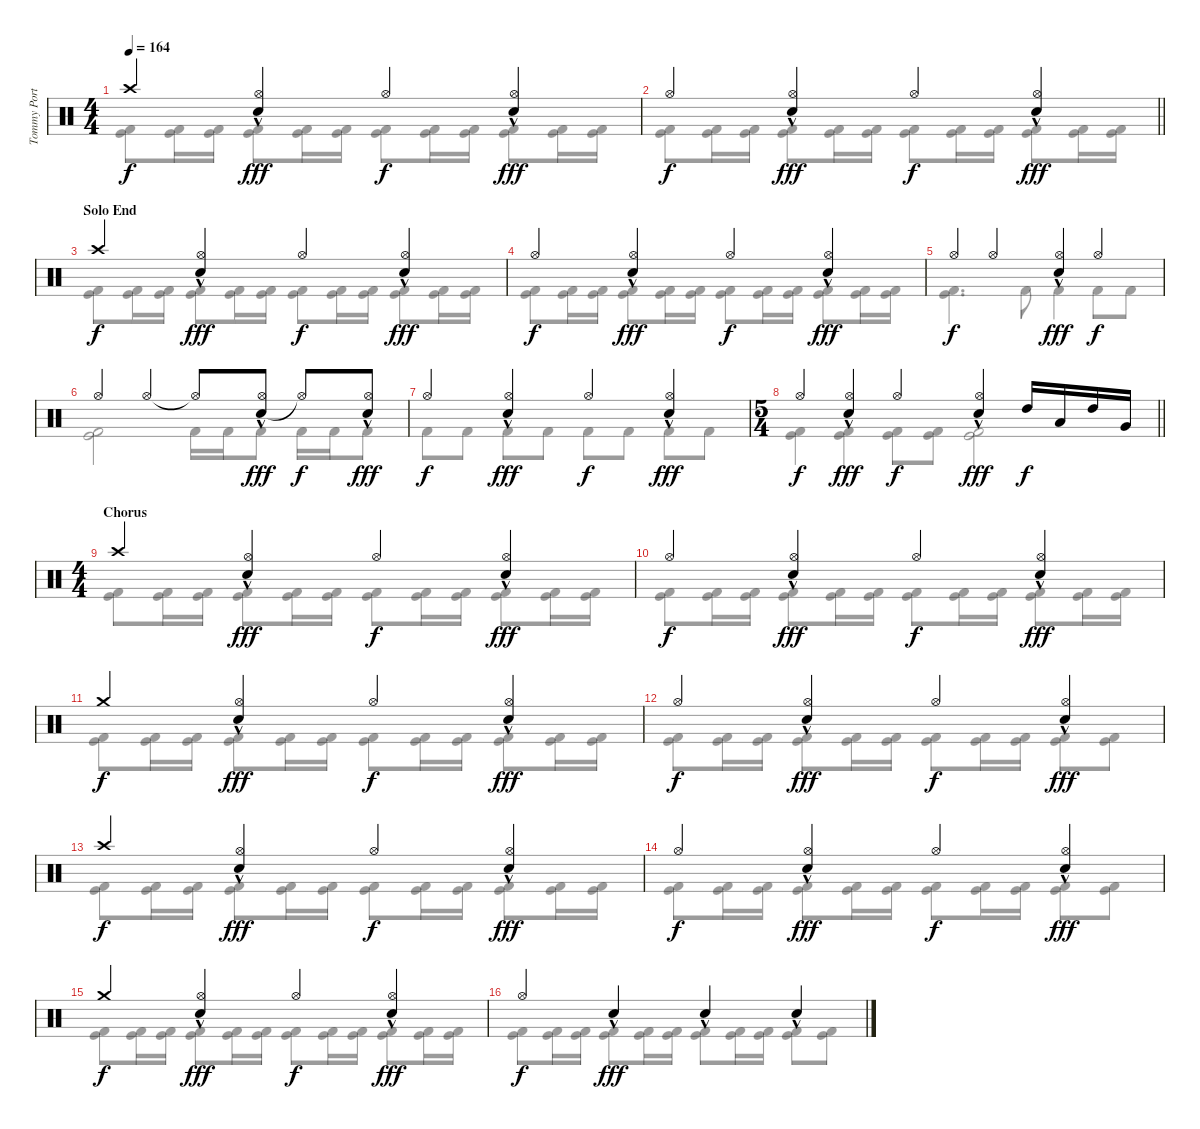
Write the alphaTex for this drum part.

\track ("Tommy Portimo" "Tommy Port") {instrument percussion}
\staff {score}
\articulation defaults
\voice
\ts (4 4)
\tempo 164
\clef neutral
\ks c "Crash high (hit)".4{dy f}
("Snare (hit) 2"{hac} "Hi-Hat (open)").4{dy fff} "Hi-Hat (open)".4{dy f} ("Snare (hit) 2"{hac} "Hi-Hat (open)").4{dy fff} |
\barLineRight lightlight "Hi-Hat (open)".4{dy f}
("Snare (hit) 2"{hac} "Hi-Hat (open)").4{dy fff} "Hi-Hat (open)".4{dy f} ("Snare (hit) 2"{hac} "Hi-Hat (open)").4{dy fff} |
\section ("" "Solo End")
"Crash high (hit)".4{dy f} ("Snare (hit) 2"{hac} "Hi-Hat (open)").4{dy fff} "Hi-Hat (open)".4{dy f} ("Snare (hit) 2"{hac} "Hi-Hat (open)").4{dy fff} |
"Hi-Hat (open)".4{dy f} ("Snare (hit) 2"{hac} "Hi-Hat (open)").4{dy fff} "Hi-Hat (open)".4{dy f} ("Snare (hit) 2"{hac} "Hi-Hat (open)").4{dy fff} |
"Hi-Hat (open)".4{dy f} "Hi-Hat (open)".4 ("Snare (hit) 2"{hac} "Hi-Hat (open)").4{dy fff} "Hi-Hat (open)".4{dy f} |
"Hi-Hat (open)".4 "Hi-Hat (open)".4 "Hi-Hat (open)"{t}.8 ("Snare (hit) 2"{hac} "Hi-Hat (open)").8{dy fff} "Hi-Hat (open)"{t}.8{dy f} ("Snare (hit) 2"{hac} "Hi-Hat (open)").8{dy fff} |
"Hi-Hat (open)".4{dy f} ("Snare (hit) 2"{hac} "Hi-Hat (open)").4{dy fff} "Hi-Hat (open)".4{dy f} ("Snare (hit) 2"{hac} "Hi-Hat (open)").4{dy fff} |
\ts (5 4)
\barLineRight lightlight "Hi-Hat (open)".4{dy f}
("Snare (hit) 2"{hac} "Hi-Hat (open)").4{dy fff} "Hi-Hat (open)".4{dy f} ("Snare (hit) 2"{hac} "Hi-Hat (open)").4{dy fff} "High Tom (hit)".16{dy f} "Low Tom (hit)".16 "High Tom (hit)".16 "Very Low Tom (hit)".16 |
\ts (4 4)
\section ("" "Chorus")
"Crash high (hit)".4 ("Snare (hit) 2"{hac} "Hi-Hat (open)").4{dy fff} "Hi-Hat (open)".4{dy f} ("Snare (hit) 2"{hac} "Hi-Hat (open)").4{dy fff} |
"Hi-Hat (open)".4{dy f} ("Snare (hit) 2"{hac} "Hi-Hat (open)").4{dy fff} "Hi-Hat (open)".4{dy f} ("Snare (hit) 2"{hac} "Hi-Hat (open)").4{dy fff} |
"Crash medium (hit)".4{dy f} ("Snare (hit) 2"{hac} "Hi-Hat (open)").4{dy fff} "Hi-Hat (open)".4{dy f} ("Snare (hit) 2"{hac} "Hi-Hat (open)").4{dy fff} |
"Hi-Hat (open)".4{dy f} ("Snare (hit) 2"{hac} "Hi-Hat (open)").4{dy fff} "Hi-Hat (open)".4{dy f} ("Snare (hit) 2"{hac} "Hi-Hat (open)").4{dy fff} |
"Crash high (hit)".4{dy f} ("Snare (hit) 2"{hac} "Hi-Hat (open)").4{dy fff} "Hi-Hat (open)".4{dy f} ("Snare (hit) 2"{hac} "Hi-Hat (open)").4{dy fff} |
"Hi-Hat (open)".4{dy f} ("Snare (hit) 2"{hac} "Hi-Hat (open)").4{dy fff} "Hi-Hat (open)".4{dy f} ("Snare (hit) 2"{hac} "Hi-Hat (open)").4{dy fff} |
"Crash medium (hit)".4{dy f} ("Snare (hit) 2"{hac} "Hi-Hat (open)").4{dy fff} "Hi-Hat (open)".4{dy f} ("Snare (hit) 2"{hac} "Hi-Hat (open)").4{dy fff} |
"Hi-Hat (open)".4{dy f} "Snare (hit) 2"{hac}.4{dy fff} "Snare (hit) 2"{hac}.4 "Snare (hit) 2"{hac}.4
\voice
\clef neutral
\ottava regular
\simile none
\ks c
("Kick (hit)" "Kick (hit) 2").8{dy f} ("Kick (hit)" "Kick (hit) 2").16 ("Kick (hit)" "Kick (hit) 2").16 ("Kick (hit)" "Kick (hit) 2").8 ("Kick (hit)" "Kick (hit) 2").16 ("Kick (hit)" "Kick (hit) 2").16 ("Kick (hit)" "Kick (hit) 2").8 ("Kick (hit)" "Kick (hit) 2").16 ("Kick (hit)" "Kick (hit) 2").16 ("Kick (hit)" "Kick (hit) 2").8 ("Kick (hit)" "Kick (hit) 2").16 ("Kick (hit)" "Kick (hit) 2").16 |
\barLineRight lightlight
("Kick (hit)" "Kick (hit) 2").8 ("Kick (hit)" "Kick (hit) 2").16 ("Kick (hit)" "Kick (hit) 2").16 ("Kick (hit)" "Kick (hit) 2").8 ("Kick (hit)" "Kick (hit) 2").16 ("Kick (hit)" "Kick (hit) 2").16 ("Kick (hit)" "Kick (hit) 2").8 ("Kick (hit)" "Kick (hit) 2").16 ("Kick (hit)" "Kick (hit) 2").16 ("Kick (hit)" "Kick (hit) 2").8 ("Kick (hit)" "Kick (hit) 2").16 ("Kick (hit)" "Kick (hit) 2").16 |
("Kick (hit)" "Kick (hit) 2").8 ("Kick (hit)" "Kick (hit) 2").16 ("Kick (hit)" "Kick (hit) 2").16 ("Kick (hit)" "Kick (hit) 2").8 ("Kick (hit)" "Kick (hit) 2").16 ("Kick (hit)" "Kick (hit) 2").16 ("Kick (hit)" "Kick (hit) 2").8 ("Kick (hit)" "Kick (hit) 2").16 ("Kick (hit)" "Kick (hit) 2").16 ("Kick (hit)" "Kick (hit) 2").8 ("Kick (hit)" "Kick (hit) 2").16 ("Kick (hit)" "Kick (hit) 2").16 |
("Kick (hit)" "Kick (hit) 2").8 ("Kick (hit)" "Kick (hit) 2").16 ("Kick (hit)" "Kick (hit) 2").16 ("Kick (hit)" "Kick (hit) 2").8 ("Kick (hit)" "Kick (hit) 2").16 ("Kick (hit)" "Kick (hit) 2").16 ("Kick (hit)" "Kick (hit) 2").8 ("Kick (hit)" "Kick (hit) 2").16 ("Kick (hit)" "Kick (hit) 2").16 ("Kick (hit)" "Kick (hit) 2").8 ("Kick (hit)" "Kick (hit) 2").16 ("Kick (hit)" "Kick (hit) 2").16 |
("Kick (hit)" "Kick (hit) 2").4{d} "Kick (hit) 2".8 "Kick (hit) 2".4 "Kick (hit) 2".8 "Kick (hit) 2".8 |
("Kick (hit)" "Kick (hit) 2").2 "Kick (hit) 2".16 "Kick (hit) 2".16 "Kick (hit) 2".8 "Kick (hit) 2".16 "Kick (hit) 2".16 "Kick (hit) 2".8 |
"Kick (hit) 2".8 "Kick (hit) 2".8 "Kick (hit) 2".8 "Kick (hit) 2".8 "Kick (hit) 2".8 "Kick (hit) 2".8 "Kick (hit) 2".8 "Kick (hit) 2".8 |
\barLineRight lightlight
("Kick (hit)" "Kick (hit) 2").4 ("Kick (hit)" "Kick (hit) 2").4 ("Kick (hit)" "Kick (hit) 2").8 ("Kick (hit)" "Kick (hit) 2").8 ("Kick (hit)" "Kick (hit) 2").2 |
("Kick (hit)" "Kick (hit) 2").8 ("Kick (hit)" "Kick (hit) 2").16 ("Kick (hit)" "Kick (hit) 2").16 ("Kick (hit)" "Kick (hit) 2").8 ("Kick (hit)" "Kick (hit) 2").16 ("Kick (hit)" "Kick (hit) 2").16 ("Kick (hit)" "Kick (hit) 2").8 ("Kick (hit)" "Kick (hit) 2").16 ("Kick (hit)" "Kick (hit) 2").16 ("Kick (hit)" "Kick (hit) 2").8 ("Kick (hit)" "Kick (hit) 2").16 ("Kick (hit)" "Kick (hit) 2").16 |
("Kick (hit)" "Kick (hit) 2").8 ("Kick (hit)" "Kick (hit) 2").16 ("Kick (hit)" "Kick (hit) 2").16 ("Kick (hit)" "Kick (hit) 2").8 ("Kick (hit)" "Kick (hit) 2").16 ("Kick (hit)" "Kick (hit) 2").16 ("Kick (hit)" "Kick (hit) 2").8 ("Kick (hit)" "Kick (hit) 2").16 ("Kick (hit)" "Kick (hit) 2").16 ("Kick (hit)" "Kick (hit) 2").8 ("Kick (hit)" "Kick (hit) 2").16 ("Kick (hit)" "Kick (hit) 2").16 |
("Kick (hit)" "Kick (hit) 2").8 ("Kick (hit)" "Kick (hit) 2").16 ("Kick (hit)" "Kick (hit) 2").16 ("Kick (hit)" "Kick (hit) 2").8 ("Kick (hit)" "Kick (hit) 2").16 ("Kick (hit)" "Kick (hit) 2").16 ("Kick (hit)" "Kick (hit) 2").8 ("Kick (hit)" "Kick (hit) 2").16 ("Kick (hit)" "Kick (hit) 2").16 ("Kick (hit)" "Kick (hit) 2").8 ("Kick (hit)" "Kick (hit) 2").16 ("Kick (hit)" "Kick (hit) 2").16 |
("Kick (hit)" "Kick (hit) 2").8 ("Kick (hit)" "Kick (hit) 2").16 ("Kick (hit)" "Kick (hit) 2").16 ("Kick (hit)" "Kick (hit) 2").8 ("Kick (hit)" "Kick (hit) 2").16 ("Kick (hit)" "Kick (hit) 2").16 ("Kick (hit)" "Kick (hit) 2").8 ("Kick (hit)" "Kick (hit) 2").16 ("Kick (hit)" "Kick (hit) 2").16 ("Kick (hit)" "Kick (hit) 2").8 ("Kick (hit)" "Kick (hit) 2").8 |
("Kick (hit)" "Kick (hit) 2").8 ("Kick (hit)" "Kick (hit) 2").16 ("Kick (hit)" "Kick (hit) 2").16 ("Kick (hit)" "Kick (hit) 2").8 ("Kick (hit)" "Kick (hit) 2").16 ("Kick (hit)" "Kick (hit) 2").16 ("Kick (hit)" "Kick (hit) 2").8 ("Kick (hit)" "Kick (hit) 2").16 ("Kick (hit)" "Kick (hit) 2").16 ("Kick (hit)" "Kick (hit) 2").8 ("Kick (hit)" "Kick (hit) 2").16 ("Kick (hit)" "Kick (hit) 2").16 |
("Kick (hit)" "Kick (hit) 2").8 ("Kick (hit)" "Kick (hit) 2").16 ("Kick (hit)" "Kick (hit) 2").16 ("Kick (hit)" "Kick (hit) 2").8 ("Kick (hit)" "Kick (hit) 2").16 ("Kick (hit)" "Kick (hit) 2").16 ("Kick (hit)" "Kick (hit) 2").8 ("Kick (hit)" "Kick (hit) 2").16 ("Kick (hit)" "Kick (hit) 2").16 ("Kick (hit)" "Kick (hit) 2").8 ("Kick (hit)" "Kick (hit) 2").8 |
("Kick (hit)" "Kick (hit) 2").8 ("Kick (hit)" "Kick (hit) 2").16 ("Kick (hit)" "Kick (hit) 2").16 ("Kick (hit)" "Kick (hit) 2").8 ("Kick (hit)" "Kick (hit) 2").16 ("Kick (hit)" "Kick (hit) 2").16 ("Kick (hit)" "Kick (hit) 2").8 ("Kick (hit)" "Kick (hit) 2").16 ("Kick (hit)" "Kick (hit) 2").16 ("Kick (hit)" "Kick (hit) 2").8 ("Kick (hit)" "Kick (hit) 2").16 ("Kick (hit)" "Kick (hit) 2").16 |
("Kick (hit)" "Kick (hit) 2").8 ("Kick (hit)" "Kick (hit) 2").16 ("Kick (hit)" "Kick (hit) 2").16 ("Kick (hit)" "Kick (hit) 2").8 ("Kick (hit)" "Kick (hit) 2").16 ("Kick (hit)" "Kick (hit) 2").16 ("Kick (hit)" "Kick (hit) 2").8 ("Kick (hit)" "Kick (hit) 2").16 ("Kick (hit)" "Kick (hit) 2").16 ("Kick (hit)" "Kick (hit) 2").8 ("Kick (hit)" "Kick (hit) 2").8
